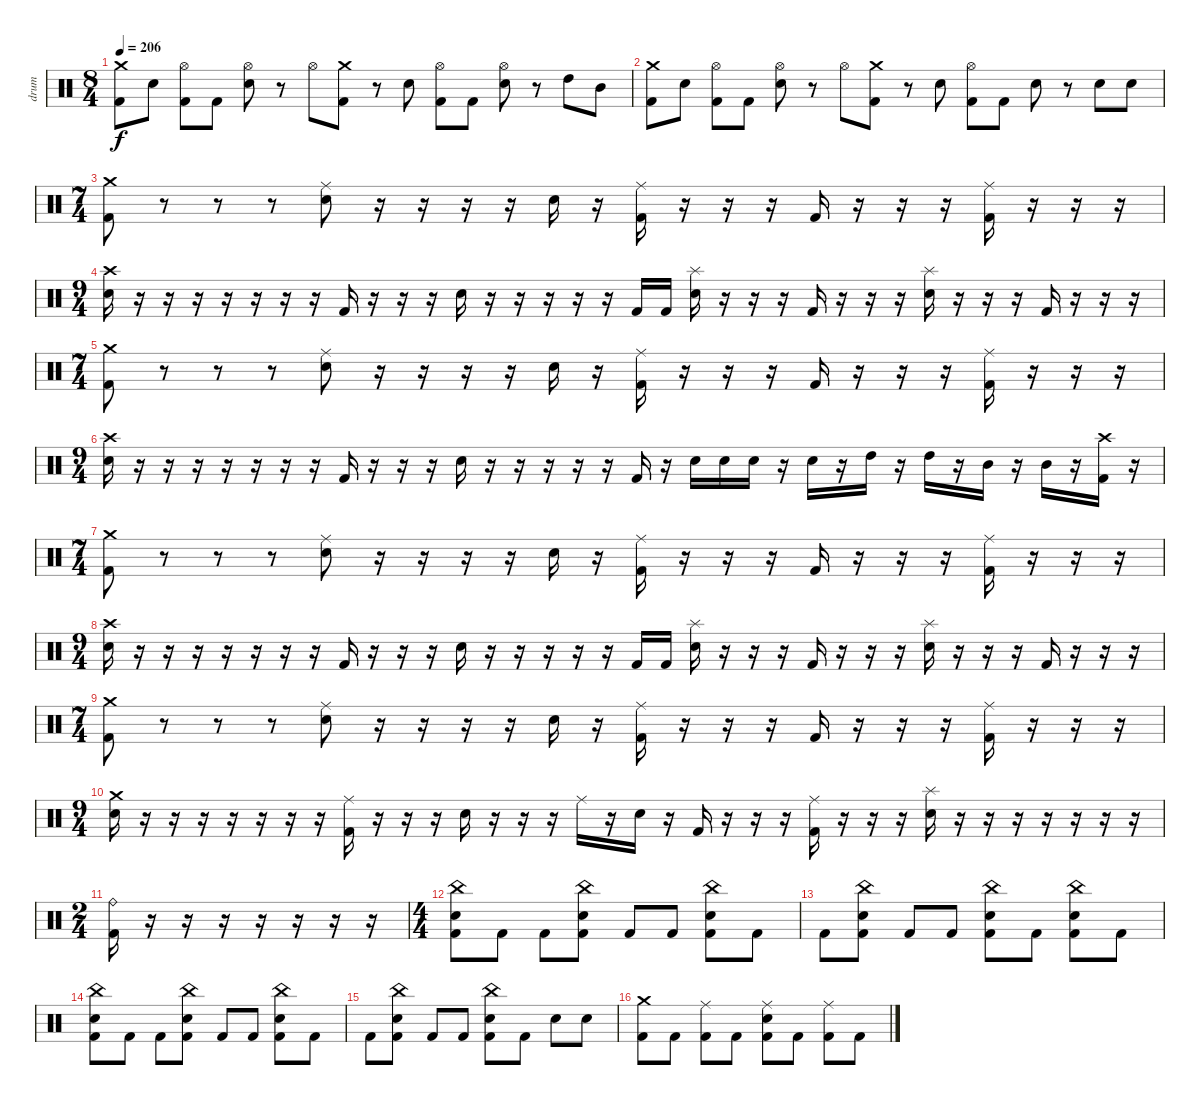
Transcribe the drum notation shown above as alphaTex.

\track ("drum" "drum") {instrument percussion}
\staff {score}
\articulation defaults
\ts (8 4)
\tempo 206
\clef neutral
\ks c
("Crash medium (hit)" "Kick (hit) 2").8{dy f} "Electric Snare (hit)".8 ("Hi-Hat (open)" "Kick (hit) 2").8 "Kick (hit) 2".8 ("Hi-Hat (open)" "Electric Snare (hit)").8 r.8 "Hi-Hat (open)".8 ("Crash medium (hit)" "Kick (hit) 2").8 r.8 "Electric Snare (hit)".8 ("Hi-Hat (open)" "Kick (hit) 2").8 "Kick (hit) 2".8 ("Hi-Hat (open)" "Electric Snare (hit)").8 r.8 "High Tom (hit)".8 "Mid Tom (hit)".8 |
("Crash medium (hit)" "Kick (hit) 2").8 "Electric Snare (hit)".8 ("Hi-Hat (open)" "Kick (hit) 2").8 "Kick (hit) 2".8 ("Hi-Hat (open)" "Electric Snare (hit)").8 r.8 "Hi-Hat (open)".8 ("Crash medium (hit)" "Kick (hit) 2").8 r.8 "Electric Snare (hit)".8 ("Hi-Hat (open)" "Kick (hit) 2").8 "Kick (hit) 2".8 "Electric Snare (hit)".8 r.8 "Electric Snare (hit)".8 "Electric Snare (hit)".8 |
\ts (7 4)
("Crash medium (hit)" "Kick (hit) 2").8 r.8 r.8 r.8 ("Ride (middle)" "Electric Snare (hit)").8 r.16 r.16 r.16 r.16 "Electric Snare (hit)".16 r.16 ("Ride (middle)" "Kick (hit) 2").16 r.16 r.16 r.16 "Kick (hit) 2".16 r.16 r.16 r.16 ("Ride (middle)" "Kick (hit) 2").16 r.16 r.16 r.16 |
\ts (9 4)
("Crash high (hit)" "Electric Snare (hit)").16 r.16 r.16 r.16 r.16 r.16 r.16 r.16 "Kick (hit) 2".16 r.16 r.16 r.16 "Electric Snare (hit)".16 r.16 r.16 r.16 r.16 r.16 "Kick (hit) 2".16 "Kick (hit) 2".16 ("Splash (hit)" "Electric Snare (hit)").16 r.16 r.16 r.16 "Kick (hit) 2".16 r.16 r.16 r.16 ("Splash (hit)" "Electric Snare (hit)").16 r.16 r.16 r.16 "Kick (hit) 2".16 r.16 r.16 r.16 |
\ts (7 4)
("Crash medium (hit)" "Kick (hit) 2").8 r.8 r.8 r.8 ("Ride (middle)" "Electric Snare (hit)").8 r.16 r.16 r.16 r.16 "Electric Snare (hit)".16 r.16 ("Ride (middle)" "Kick (hit) 2").16 r.16 r.16 r.16 "Kick (hit) 2".16 r.16 r.16 r.16 ("Ride (middle)" "Kick (hit) 2").16 r.16 r.16 r.16 |
\ts (9 4)
("Crash high (hit)" "Electric Snare (hit)").16 r.16 r.16 r.16 r.16 r.16 r.16 r.16 "Kick (hit) 2".16 r.16 r.16 r.16 "Electric Snare (hit)".16 r.16 r.16 r.16 r.16 r.16 "Kick (hit) 2".16 r.16 "Electric Snare (hit)".16 "Electric Snare (hit)".16 "Electric Snare (hit)".16 r.16 "Electric Snare (hit)".16 r.16 "High Tom (hit)".16 r.16 "High Tom (hit)".16 r.16 "Mid Tom (hit)".16 r.16 "Mid Tom (hit)".16 r.16 ("Crash high (hit)" "Kick (hit) 2").16 r.16 |
\ts (7 4)
("Crash medium (hit)" "Kick (hit) 2").8 r.8 r.8 r.8 ("Ride (middle)" "Electric Snare (hit)").8 r.16 r.16 r.16 r.16 "Electric Snare (hit)".16 r.16 ("Ride (middle)" "Kick (hit) 2").16 r.16 r.16 r.16 "Kick (hit) 2".16 r.16 r.16 r.16 ("Ride (middle)" "Kick (hit) 2").16 r.16 r.16 r.16 |
\ts (9 4)
("Crash high (hit)" "Electric Snare (hit)").16 r.16 r.16 r.16 r.16 r.16 r.16 r.16 "Kick (hit) 2".16 r.16 r.16 r.16 "Electric Snare (hit)".16 r.16 r.16 r.16 r.16 r.16 "Kick (hit) 2".16 "Kick (hit) 2".16 ("Splash (hit)" "Electric Snare (hit)").16 r.16 r.16 r.16 "Kick (hit) 2".16 r.16 r.16 r.16 ("Splash (hit)" "Electric Snare (hit)").16 r.16 r.16 r.16 "Kick (hit) 2".16 r.16 r.16 r.16 |
\ts (7 4)
("Crash medium (hit)" "Kick (hit) 2").8 r.8 r.8 r.8 ("Ride (middle)" "Electric Snare (hit)").8 r.16 r.16 r.16 r.16 "Electric Snare (hit)".16 r.16 ("Ride (middle)" "Kick (hit) 2").16 r.16 r.16 r.16 "Kick (hit) 2".16 r.16 r.16 r.16 ("Ride (middle)" "Kick (hit) 2").16 r.16 r.16 r.16 |
\ts (9 4)
("Crash medium (hit)" "Electric Snare (hit)").16 r.16 r.16 r.16 r.16 r.16 r.16 r.16 ("Ride (middle)" "Kick (hit) 2").16 r.16 r.16 r.16 "Electric Snare (hit)".16 r.16 r.16 r.16 "Ride (middle)".16 r.16 "Electric Snare (hit)".16 r.16 "Kick (hit) 2".16 r.16 r.16 r.16 ("Ride (middle)" "Kick (hit) 2").16 r.16 r.16 r.16 ("Splash (hit)" "Electric Snare (hit)").16 r.16 r.16 r.16 r.16 r.16 r.16 r.16 |
\ts (2 4)
("Ride (bell)" "Kick (hit) 2").16 r.16 r.16 r.16 r.16 r.16 r.16 r.16 |
\ts (4 4)
("China (hit)" "Electric Snare (hit)" "Kick (hit) 2").8 "Kick (hit) 2".8 "Kick (hit) 2".8 ("China (hit)" "Electric Snare (hit)" "Kick (hit) 2").8 "Kick (hit) 2".8 "Kick (hit) 2".8 ("China (hit)" "Electric Snare (hit)" "Kick (hit) 2").8 "Kick (hit) 2".8 |
"Kick (hit) 2".8 ("China (hit)" "Electric Snare (hit)" "Kick (hit) 2").8 "Kick (hit) 2".8 "Kick (hit) 2".8 ("China (hit)" "Electric Snare (hit)" "Kick (hit) 2").8 "Kick (hit) 2".8 ("China (hit)" "Electric Snare (hit)" "Kick (hit) 2").8 "Kick (hit) 2".8 |
("China (hit)" "Electric Snare (hit)" "Kick (hit) 2").8 "Kick (hit) 2".8 "Kick (hit) 2".8 ("China (hit)" "Electric Snare (hit)" "Kick (hit) 2").8 "Kick (hit) 2".8 "Kick (hit) 2".8 ("China (hit)" "Electric Snare (hit)" "Kick (hit) 2").8 "Kick (hit) 2".8 |
"Kick (hit) 2".8 ("China (hit)" "Electric Snare (hit)" "Kick (hit) 2").8 "Kick (hit) 2".8 "Kick (hit) 2".8 ("China (hit)" "Electric Snare (hit)" "Kick (hit) 2").8 "Kick (hit) 2".8 "Electric Snare (hit)".8 "Electric Snare (hit)".8 |
("Crash medium (hit)" "Kick (hit) 2").8 "Kick (hit) 2".8 ("Ride (middle)" "Kick (hit) 2").8 "Kick (hit) 2".8 ("Ride (middle)" "Electric Snare (hit)" "Kick (hit) 2").8 "Kick (hit) 2".8 ("Ride (middle)" "Kick (hit) 2").8 "Kick (hit) 2".8
